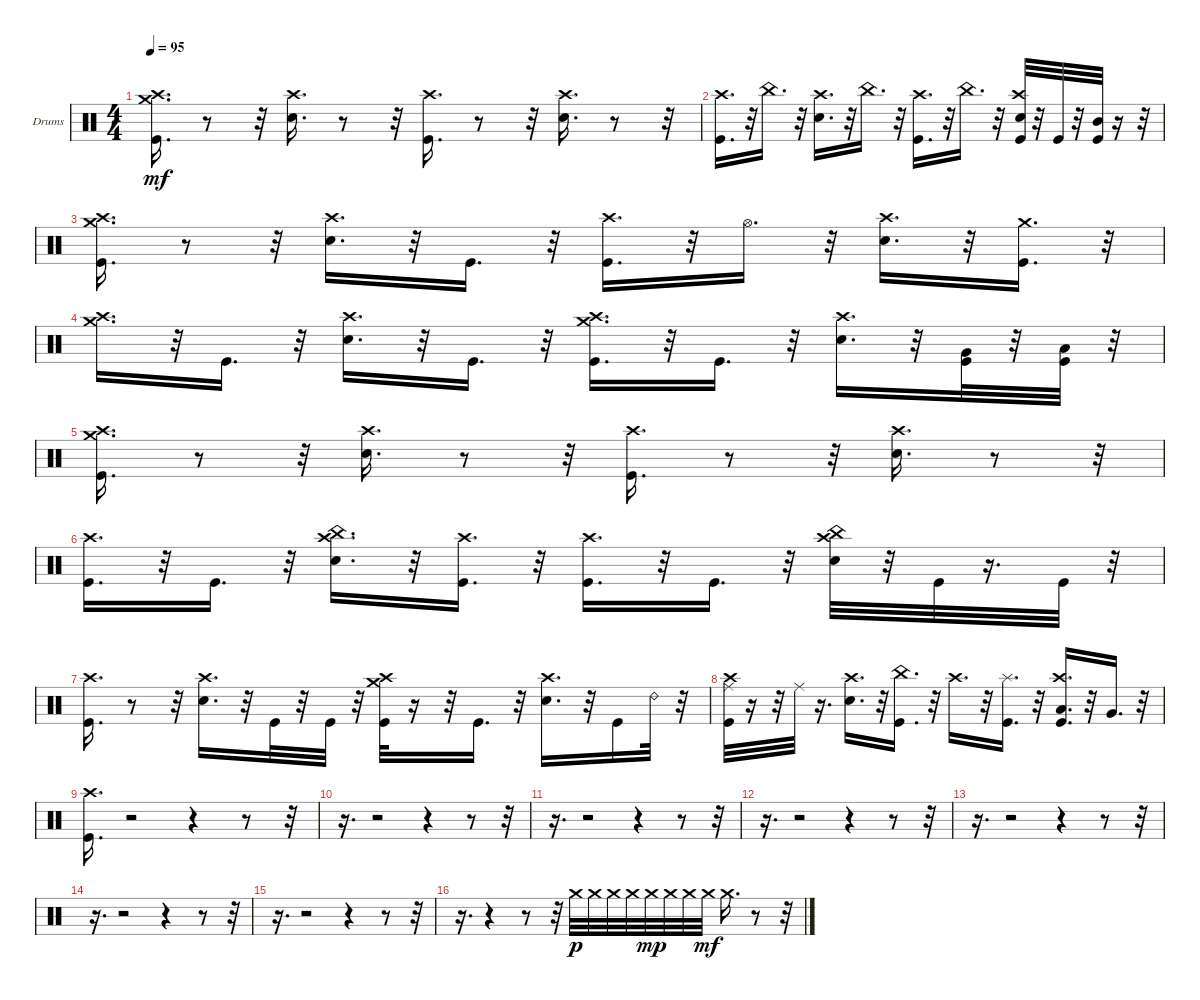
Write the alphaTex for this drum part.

\bracketExtendMode groupsimilarinstruments
\firstSystemTrackNameOrientation horizontal
\otherSystemsTrackNameOrientation horizontal
\track ("Drums" "Drums") {instrument percussion}
\staff {score}
\articulation defaults
\ts (4 4)
\tempo 95
\clef neutral
\ks c
("Kick (hit)" "Crash high (hit)" "Crash medium (hit)").16{d dy mf} r.8 r.32 ("Snare (hit) 2" "Crash high (hit)").16{d} r.8 r.32 ("Kick (hit)" "Crash high (hit)").16{d} r.8 r.32 ("Snare (hit) 2" "Crash high (hit)").16{d} r.8 r.32 |
("Kick (hit)" "Crash high (hit)").16{d} r.32 "China (hit)".16{d} r.32 ("Snare (hit) 2" "Crash high (hit)").16{d} r.32 "China (hit)".16{d} r.32 ("Kick (hit)" "Crash high (hit)").16{d} r.32 "China (hit)".16{d} r.32 ("Kick (hit)" "Snare (hit) 2" "Crash high (hit)").32 r.32 "Kick (hit)".32 r.32 ("Kick (hit)" "Mid Tom (hit)").32 r.16 r.32 |
("Crash medium (hit)" "Crash high (hit)" "Kick (hit)").16{d} r.8 r.32 ("Snare (hit) 2" "Crash high (hit)").16{d} r.32 "Kick (hit)".16{d} r.32 ("Kick (hit)" "Crash high (hit)").16{d} r.32 "Hi-Hat (open)".16{d} r.32 ("Snare (hit) 2" "Crash high (hit)").16{d} r.32 ("Crash medium (hit)" "Kick (hit)").16{d} r.32 |
("Crash high (hit)" "Crash medium (hit)").16{d} r.32 "Kick (hit)".16{d} r.32 ("Snare (hit) 2" "Crash high (hit)").16{d} r.32 "Kick (hit)".16{d} r.32 ("Kick (hit)" "Crash high (hit)" "Crash medium (hit)").16{d} r.32 "Kick (hit)".16{d} r.32 ("Snare (hit) 2" "Crash high (hit)").16{d} r.32 ("Kick (hit)" "Very Low Tom (hit)").32 r.32 ("Kick (hit)" "Low Tom (hit)").32 r.32 |
("Kick (hit)" "Crash medium (hit)" "Crash high (hit)").16{d} r.8 r.32 ("Snare (hit) 2" "Crash high (hit)").16{d} r.8 r.32 ("Kick (hit)" "Crash high (hit)").16{d} r.8 r.32 ("Snare (hit) 2" "Crash high (hit)").16{d} r.8 r.32 |
("Kick (hit)" "Crash high (hit)").16{d} r.32 "Kick (hit)".16{d} r.32 ("Snare (hit) 2" "Crash high (hit)" "China (hit)").16{d} r.32 ("Kick (hit)" "Crash high (hit)").16{d} r.32 ("Kick (hit)" "Crash high (hit)").16{d} r.32 "Kick (hit)".16{d} r.32 ("China (hit)" "Crash high (hit)" "Snare (hit) 2").32 r.32 "Kick (hit)".32 r.16{d} "Kick (hit)".32 r.32 |
("Kick (hit)" "Crash high (hit)").16{d} r.8 r.32 ("Snare (hit) 2" "Crash high (hit)").16{d} r.32 "Kick (hit)".32 r.32 "Kick (hit)".32 r.32 ("Kick (hit)" "Crash high (hit)" "Crash medium (hit)").32 r.16 r.32 "Kick (hit)".16{d} r.32 ("Snare (hit) 2" "Crash high (hit)").16{d} r.32 "Kick (hit)".16 "Ride (bell) 2".32 r.32 |
("Kick (hit)" "Crash high (hit)" "Ride (middle)").32 r.16 r.32 "Ride (middle)".32 r.16{d} ("Snare (hit) 2" "Crash high (hit)").16{d} r.32 ("Kick (hit)" "China (hit)").16{d} r.32 "Crash high (hit)".16{d} r.32 ("Kick (hit)" "Splash (hit)").16{d} r.32 ("Kick (hit)" "Crash high (hit)" "Low Tom (hit)").16{d} r.32 "Very Low Tom (hit)".16{d} r.32 |
("Kick (hit)" "Crash high (hit)").16{d} r.2 r.4 r.8 r.32 |
r.16{d} r.2 r.4 r.8 r.32 |
r.16{d} r.2 r.4 r.8 r.32 |
r.16{d} r.2 r.4 r.8 r.32 |
r.16{d} r.2 r.4 r.8 r.32 |
r.16{d} r.2 r.4 r.8 r.32 |
r.16{d} r.2 r.4 r.8 r.32 |
r.16{d} r.4 r.8 r.32 "Crash medium (hit)".32{dy p} "Crash medium (hit)".32 "Crash medium (hit)".32 "Crash medium (hit)".32 "Crash medium (hit)".32{dy mp} "Crash medium (hit)".32 "Crash medium (hit)".32 "Crash medium (hit)".32{dy mf} "Crash medium (hit)".16{d} r.8 r.32
